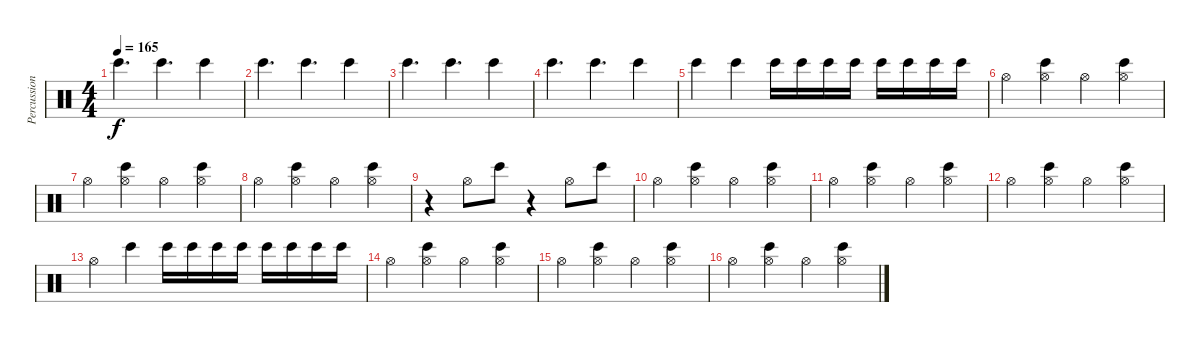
\track ("Percussion" "Percussion") {instrument percussion}
\staff {score}
\articulation defaults
\ts (4 4)
\tempo 165
\clef neutral
\ks c "Bongo High (hit)".4{d dy f} "Bongo High (hit)".4{d} "Bongo High (hit)".4
|
"Bongo High (hit)".4{d} "Bongo High (hit)".4{d} "Bongo High (hit)".4 |
"Bongo High (hit)".4{d} "Bongo High (hit)".4{d} "Bongo High (hit)".4 |
"Bongo High (hit)".4{d} "Bongo High (hit)".4{d} "Bongo High (hit)".4 |
"Bongo High (hit)".4 "Bongo High (hit)".4 "Bongo High (hit)".16 "Bongo High (hit)".16 "Bongo High (hit)".16 "Bongo High (hit)".16 "Bongo High (hit)".16 "Bongo High (hit)".16 "Bongo High (hit)".16 "Bongo High (hit)".16 |
"Hi-Hat (open)".4 ("Bongo High (hit)" "Hi-Hat (open)").4 "Hi-Hat (open)".4 ("Bongo High (hit)" "Hi-Hat (open)").4 |
"Hi-Hat (open)".4 ("Bongo High (hit)" "Hi-Hat (open)").4 "Hi-Hat (open)".4 ("Bongo High (hit)" "Hi-Hat (open)").4 |
"Hi-Hat (open)".4 ("Bongo High (hit)" "Hi-Hat (open)").4 "Hi-Hat (open)".4 ("Bongo High (hit)" "Hi-Hat (open)").4 |
r.4 "Hi-Hat (open)".8 "Bongo High (hit)".8 r.4 "Hi-Hat (open)".8 "Bongo High (hit)".8 |
"Hi-Hat (open)".4 ("Bongo High (hit)" "Hi-Hat (open)").4 "Hi-Hat (open)".4 ("Bongo High (hit)" "Hi-Hat (open)").4 |
"Hi-Hat (open)".4 ("Bongo High (hit)" "Hi-Hat (open)").4 "Hi-Hat (open)".4 ("Bongo High (hit)" "Hi-Hat (open)").4 |
"Hi-Hat (open)".4 ("Bongo High (hit)" "Hi-Hat (open)").4 "Hi-Hat (open)".4 ("Bongo High (hit)" "Hi-Hat (open)").4 |
"Hi-Hat (open)".4 "Bongo High (hit)".4 "Bongo High (hit)".16 "Bongo High (hit)".16 "Bongo High (hit)".16 "Bongo High (hit)".16 "Bongo High (hit)".16 "Bongo High (hit)".16 "Bongo High (hit)".16 "Bongo High (hit)".16 |
"Hi-Hat (open)".4 ("Bongo High (hit)" "Hi-Hat (open)").4 "Hi-Hat (open)".4 ("Bongo High (hit)" "Hi-Hat (open)").4 |
"Hi-Hat (open)".4 ("Bongo High (hit)" "Hi-Hat (open)").4 "Hi-Hat (open)".4 ("Bongo High (hit)" "Hi-Hat (open)").4 |
"Hi-Hat (open)".4 ("Bongo High (hit)" "Hi-Hat (open)").4 "Hi-Hat (open)".4 ("Bongo High (hit)" "Hi-Hat (open)").4
